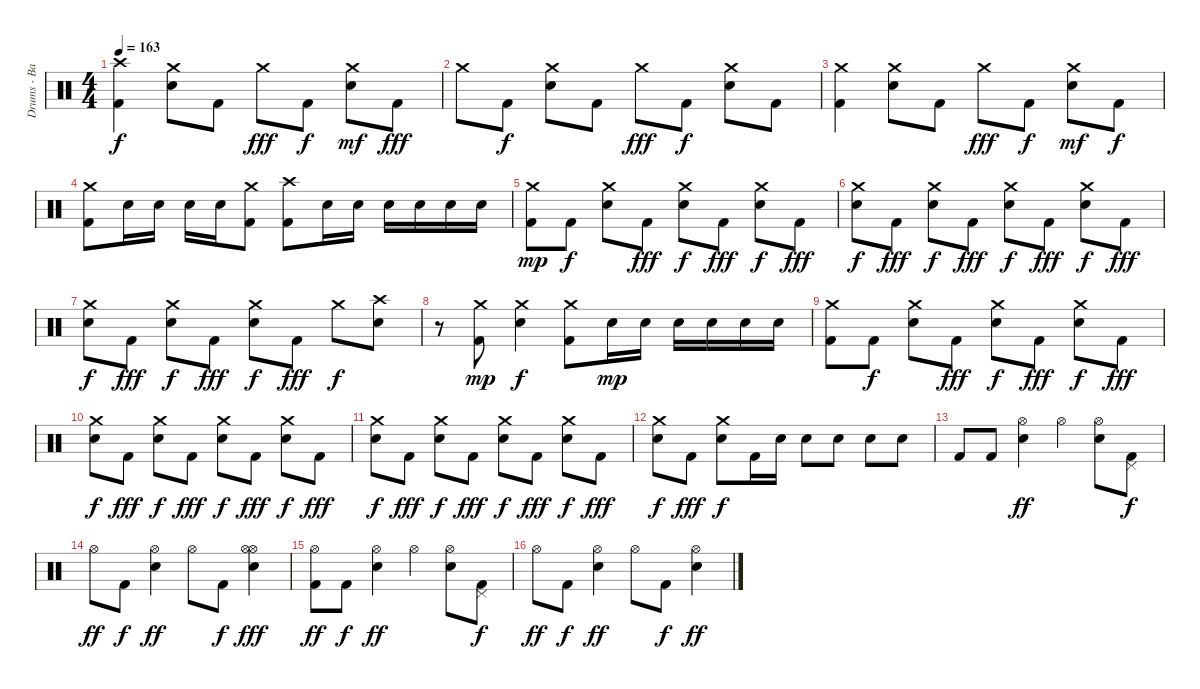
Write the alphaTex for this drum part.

\track ("Drums - Bateria" "Drums - Ba") {instrument percussion}
\staff {score}
\articulation defaults
\ts (4 4)
\tempo 163
\clef neutral
\ks c
("Crash high (hit)" "Kick (hit) 2").4{dy f} ("Crash medium (hit)" "Electric Snare (hit)").8 "Kick (hit) 2".8 "Crash medium (hit)".8{dy fff} "Kick (hit) 2".8{dy f} ("Crash medium (hit)" "Electric Snare (hit)").8{dy mf} "Kick (hit) 2".8{dy fff} |
"Crash medium (hit)".8 "Kick (hit) 2".8{dy f} ("Crash medium (hit)" "Electric Snare (hit)").8 "Kick (hit) 2".8 "Crash medium (hit)".8{dy fff} "Kick (hit) 2".8{dy f} ("Crash medium (hit)" "Electric Snare (hit)").8 "Kick (hit) 2".8 |
("Crash medium (hit)" "Kick (hit) 2").4 ("Crash medium (hit)" "Electric Snare (hit)").8 "Kick (hit) 2".8 "Crash medium (hit)".8{dy fff} "Kick (hit) 2".8{dy f} ("Crash medium (hit)" "Electric Snare (hit)").8{dy mf} "Kick (hit) 2".8{dy f} |
("Crash medium (hit)" "Kick (hit) 2").8 "Electric Snare (hit)".16 "Electric Snare (hit)".16 "Electric Snare (hit)".16 "Electric Snare (hit)".16 ("Crash medium (hit)" "Kick (hit) 2").8 ("Crash high (hit)" "Kick (hit) 2").8 "Electric Snare (hit)".16 "Electric Snare (hit)".16 "Electric Snare (hit)".16 "Electric Snare (hit)".16 "Electric Snare (hit)".16 "Electric Snare (hit)".16 |
("Crash medium (hit)" "Kick (hit) 2").8{dy mp} "Kick (hit) 2".8{dy f} ("Crash medium (hit)" "Electric Snare (hit)").8 "Kick (hit) 2".8{dy fff} ("Crash medium (hit)" "Electric Snare (hit)").8{dy f} "Kick (hit) 2".8{dy fff} ("Crash medium (hit)" "Electric Snare (hit)").8{dy f} "Kick (hit) 2".8{dy fff} |
("Crash medium (hit)" "Electric Snare (hit)").8{dy f} "Kick (hit) 2".8{dy fff} ("Crash medium (hit)" "Electric Snare (hit)").8{dy f} "Kick (hit) 2".8{dy fff} ("Crash medium (hit)" "Electric Snare (hit)").8{dy f} "Kick (hit) 2".8{dy fff} ("Crash medium (hit)" "Electric Snare (hit)").8{dy f} "Kick (hit) 2".8{dy fff} |
("Crash medium (hit)" "Electric Snare (hit)").8{dy f} "Kick (hit) 2".8{dy fff} ("Crash medium (hit)" "Electric Snare (hit)").8{dy f} "Kick (hit) 2".8{dy fff} ("Crash medium (hit)" "Electric Snare (hit)").8{dy f} "Kick (hit) 2".8{dy fff} "Crash medium (hit)".8{dy f} ("Crash high (hit)" "Electric Snare (hit)").8 |
r.8 ("Crash medium (hit)" "Kick (hit) 2").8{dy mp} ("Crash medium (hit)" "Electric Snare (hit)").4{dy f} ("Crash medium (hit)" "Kick (hit) 2").8 "Electric Snare (hit)".16{dy mp} "Electric Snare (hit)".16 "Electric Snare (hit)".16 "Electric Snare (hit)".16 "Electric Snare (hit)".16 "Electric Snare (hit)".16 |
("Crash medium (hit)" "Kick (hit) 2").8 "Kick (hit) 2".8{dy f} ("Crash medium (hit)" "Electric Snare (hit)").8 "Kick (hit) 2".8{dy fff} ("Crash medium (hit)" "Electric Snare (hit)").8{dy f} "Kick (hit) 2".8{dy fff} ("Crash medium (hit)" "Electric Snare (hit)").8{dy f} "Kick (hit) 2".8{dy fff} |
("Crash medium (hit)" "Electric Snare (hit)").8{dy f} "Kick (hit) 2".8{dy fff} ("Crash medium (hit)" "Electric Snare (hit)").8{dy f} "Kick (hit) 2".8{dy fff} ("Crash medium (hit)" "Electric Snare (hit)").8{dy f} "Kick (hit) 2".8{dy fff} ("Crash medium (hit)" "Electric Snare (hit)").8{dy f} "Kick (hit) 2".8{dy fff} |
("Crash medium (hit)" "Electric Snare (hit)").8{dy f} "Kick (hit) 2".8{dy fff} ("Crash medium (hit)" "Electric Snare (hit)").8{dy f} "Kick (hit) 2".8{dy fff} ("Crash medium (hit)" "Electric Snare (hit)").8{dy f} "Kick (hit) 2".8{dy fff} ("Crash medium (hit)" "Electric Snare (hit)").8{dy f} "Kick (hit) 2".8{dy fff} |
("Crash medium (hit)" "Electric Snare (hit)").8{dy f} "Kick (hit) 2".8{dy fff} ("Crash medium (hit)" "Electric Snare (hit)").8{dy f} "Kick (hit) 2".16 "Electric Snare (hit)".16 "Electric Snare (hit)".8 "Electric Snare (hit)".8 "Electric Snare (hit)".8 "Electric Snare (hit)".8 |
"Kick (hit) 2".8 "Kick (hit) 2".8 ("Hi-Hat (open)" "Electric Snare (hit)").4{dy ff} "Hi-Hat (open)".4 ("Hi-Hat (open)" "Electric Snare (hit)").8 ("Pedal Hi-Hat (hit)" "Kick (hit) 2").8{dy f} |
"Hi-Hat (open)".8{dy ff} "Kick (hit) 2".8{dy f} ("Hi-Hat (open)" "Electric Snare (hit)").4{dy ff} "Hi-Hat (open)".8 "Kick (hit) 2".8{dy f} ("Hi-Hat (open)" "Hi-Hat (open)" "Electric Snare (hit)").4{dy fff} |
("Hi-Hat (open)" "Kick (hit) 2").8{dy ff} "Kick (hit) 2".8{dy f} ("Hi-Hat (open)" "Electric Snare (hit)").4{dy ff} "Hi-Hat (open)".4 ("Hi-Hat (open)" "Electric Snare (hit)").8 ("Pedal Hi-Hat (hit)" "Kick (hit) 2").8{dy f} |
"Hi-Hat (open)".8{dy ff} "Kick (hit) 2".8{dy f} ("Hi-Hat (open)" "Electric Snare (hit)").4{dy ff} "Hi-Hat (open)".8 "Kick (hit) 2".8{dy f} ("Hi-Hat (open)" "Electric Snare (hit)").4{dy ff}
